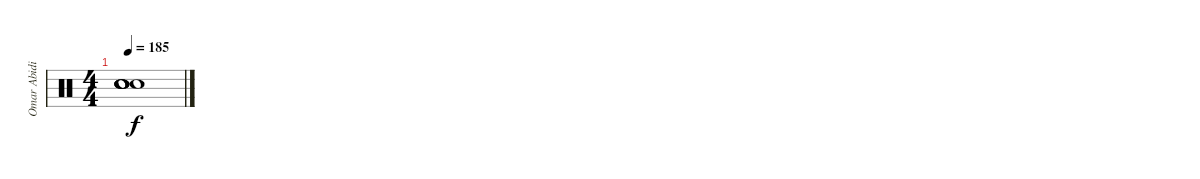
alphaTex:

\track ("Omar Abidi" "Omar Abidi") {instrument percussion}
\staff {score}
\articulation defaults
\ts (4 4)
\tempo 185
\clef neutral
\ks c
("Snare (hit)"{t} "Snare (hit)"{t} "Snare (hit)"{t} "Snare (hit)"{t} "Snare (hit)"{t}).1{dy f}
